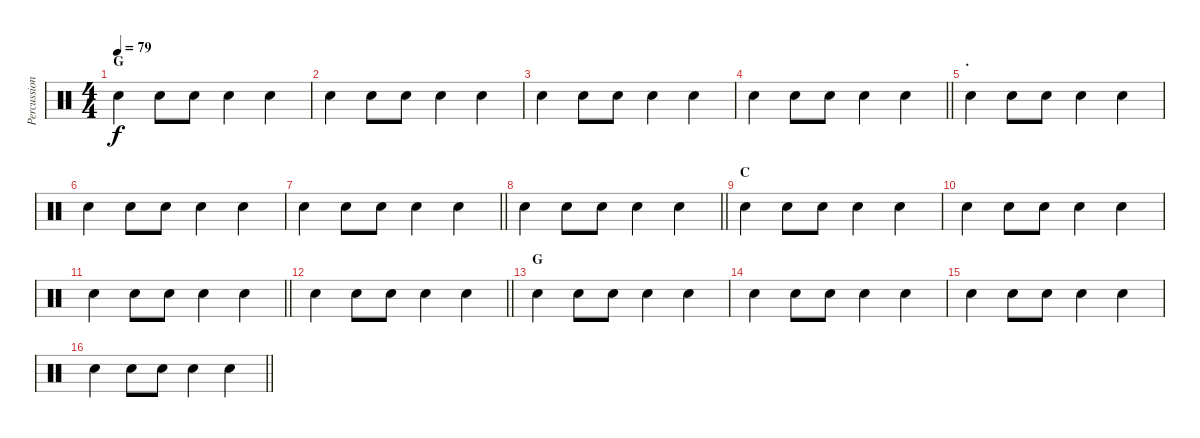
\track ("Percussion" "Percussion") {instrument percussion}
\staff {score}
\articulation defaults
\ts (4 4)
\section ("" "G")
\tempo 79
\clef neutral
\ks c "Snare (hit) 2".4{dy f} "Snare (hit) 2".8 "Snare (hit) 2".8 "Snare (hit) 2".4 "Snare (hit) 2".4
|
"Snare (hit) 2".4 "Snare (hit) 2".8 "Snare (hit) 2".8 "Snare (hit) 2".4 "Snare (hit) 2".4 |
"Snare (hit) 2".4 "Snare (hit) 2".8 "Snare (hit) 2".8 "Snare (hit) 2".4 "Snare (hit) 2".4 |
\barLineRight lightlight "Snare (hit) 2".4 "Snare (hit) 2".8 "Snare (hit) 2".8 "Snare (hit) 2".4 "Snare (hit) 2".4
|
\section ("" ".")
"Snare (hit) 2".4 "Snare (hit) 2".8 "Snare (hit) 2".8 "Snare (hit) 2".4 "Snare (hit) 2".4 |
"Snare (hit) 2".4 "Snare (hit) 2".8 "Snare (hit) 2".8 "Snare (hit) 2".4 "Snare (hit) 2".4 |
\barLineRight lightlight "Snare (hit) 2".4 "Snare (hit) 2".8 "Snare (hit) 2".8 "Snare (hit) 2".4 "Snare (hit) 2".4
|
\barLineRight lightlight "Snare (hit) 2".4 "Snare (hit) 2".8 "Snare (hit) 2".8 "Snare (hit) 2".4 "Snare (hit) 2".4
|
\section ("" "C")
"Snare (hit) 2".4 "Snare (hit) 2".8 "Snare (hit) 2".8 "Snare (hit) 2".4 "Snare (hit) 2".4 |
"Snare (hit) 2".4 "Snare (hit) 2".8 "Snare (hit) 2".8 "Snare (hit) 2".4 "Snare (hit) 2".4 |
\barLineRight lightlight "Snare (hit) 2".4 "Snare (hit) 2".8 "Snare (hit) 2".8 "Snare (hit) 2".4 "Snare (hit) 2".4
|
\barLineRight lightlight "Snare (hit) 2".4 "Snare (hit) 2".8 "Snare (hit) 2".8 "Snare (hit) 2".4 "Snare (hit) 2".4
|
\section ("" "G")
"Snare (hit) 2".4 "Snare (hit) 2".8 "Snare (hit) 2".8 "Snare (hit) 2".4 "Snare (hit) 2".4 |
"Snare (hit) 2".4 "Snare (hit) 2".8 "Snare (hit) 2".8 "Snare (hit) 2".4 "Snare (hit) 2".4 |
"Snare (hit) 2".4 "Snare (hit) 2".8 "Snare (hit) 2".8 "Snare (hit) 2".4 "Snare (hit) 2".4 |
\barLineRight lightlight "Snare (hit) 2".4 "Snare (hit) 2".8 "Snare (hit) 2".8 "Snare (hit) 2".4 "Snare (hit) 2".4
